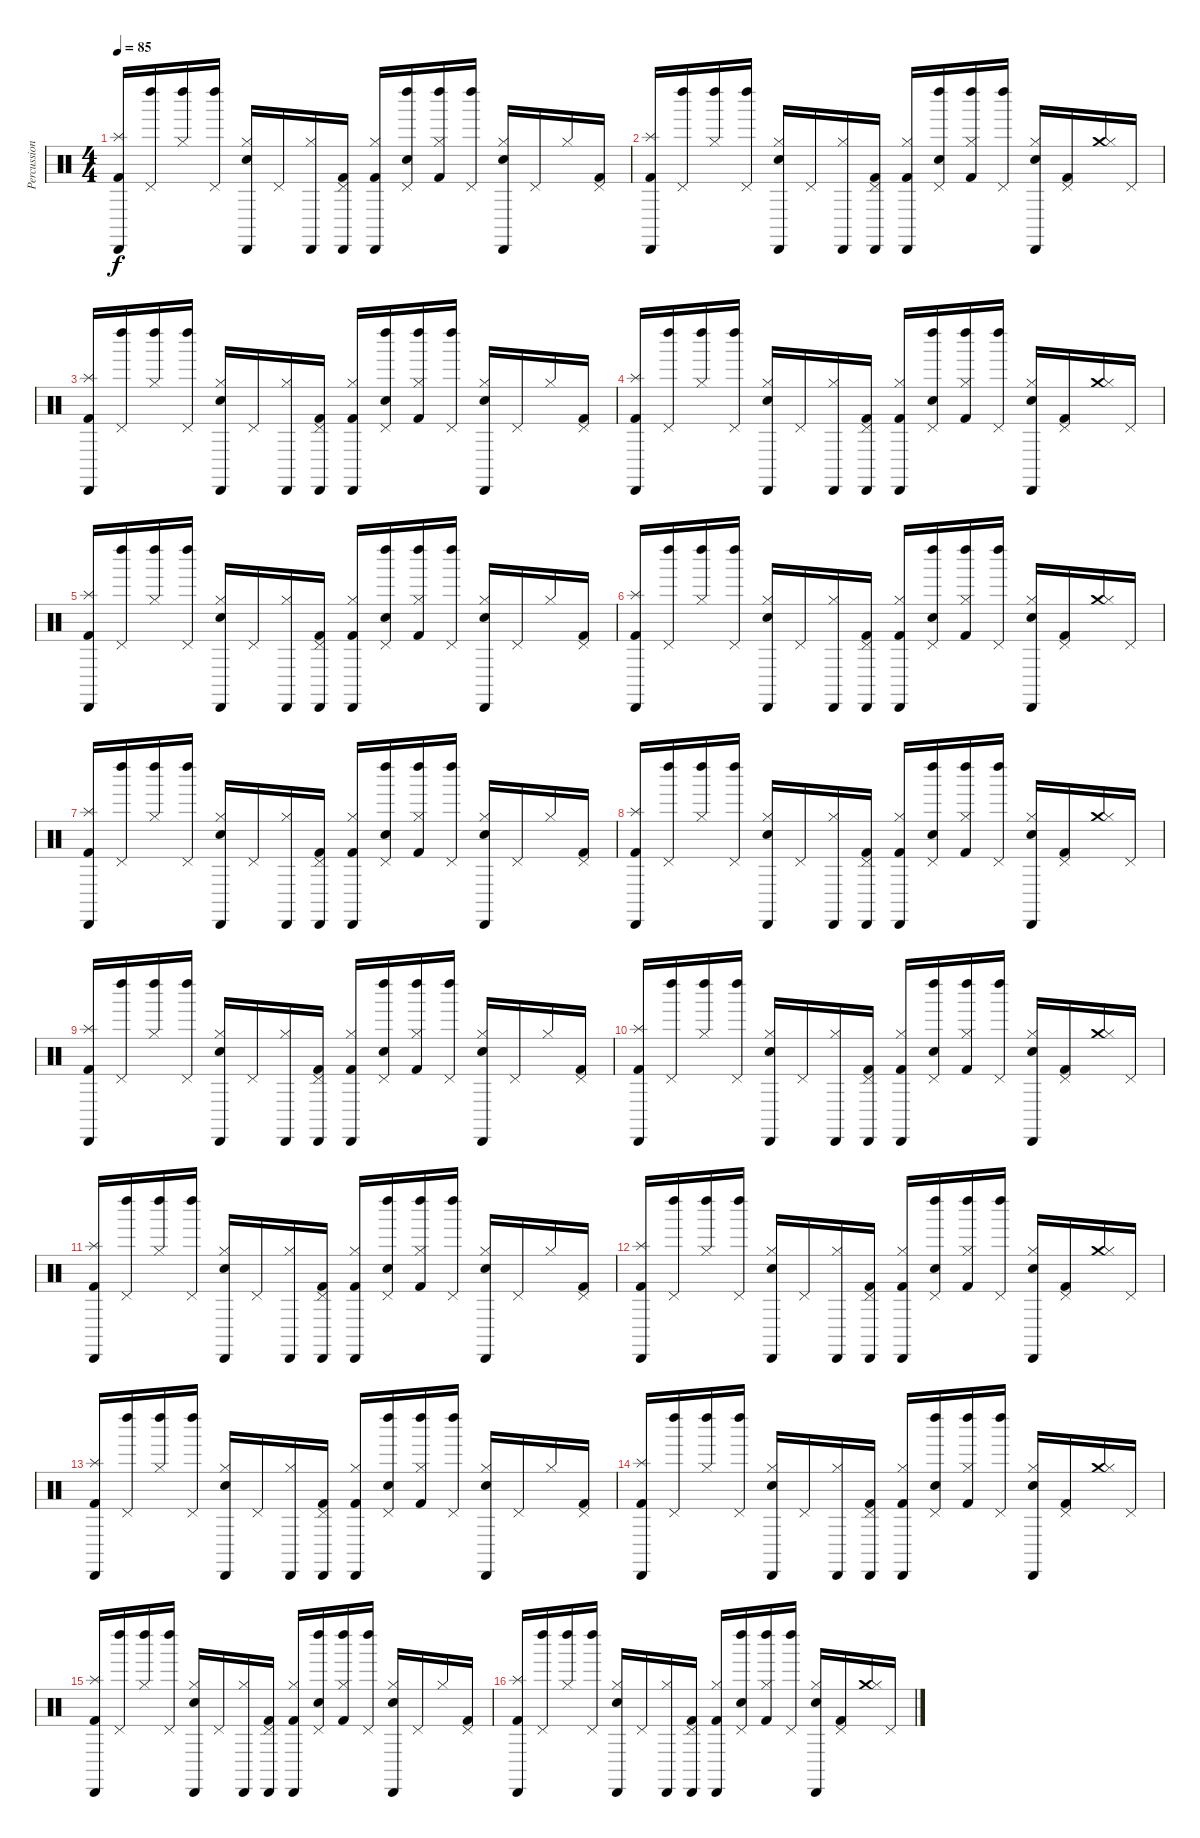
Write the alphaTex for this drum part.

\track ("Percussion" "Percussion") {instrument percussion}
\staff {score}
\articulation defaults
\ts (4 4)
\tempo 85
\clef neutral
\ks c
("Cabasa (hit)" "Splash (hit)" "Kick (hit) 2").16{dy f} ("Left Maraca (hit)" "Pedal Hi-Hat (hit)").16 ("Left Maraca (hit)" "Hi-Hat (closed)").16 ("Left Maraca (hit)" "Pedal Hi-Hat (hit)").16 ("Cabasa (hit)" "Hi-Hat (closed)" "Snare (hit) 2").16 "Pedal Hi-Hat (hit)".16 ("Cabasa (hit)" "Hi-Hat (closed)").16 ("Cabasa (hit)" "Pedal Hi-Hat (hit)" "Kick (hit) 2").16 ("Cabasa (hit)" "Hi-Hat (closed)" "Kick (hit) 2").16 ("Left Maraca (hit)" "Pedal Hi-Hat (hit)" "Snare (hit) 2").16 ("Left Maraca (hit)" "Hi-Hat (closed)" "Kick (hit) 2").16 ("Left Maraca (hit)" "Pedal Hi-Hat (hit)").16 ("Cabasa (hit)" "Hi-Hat (closed)" "Snare (hit) 2").16 "Pedal Hi-Hat (hit)".16 "Hi-Hat (closed)".16 ("Pedal Hi-Hat (hit)" "Kick (hit) 2").16 |
("Cabasa (hit)" "Splash (hit)" "Kick (hit) 2").16 ("Left Maraca (hit)" "Pedal Hi-Hat (hit)").16 ("Left Maraca (hit)" "Hi-Hat (closed)").16 ("Left Maraca (hit)" "Pedal Hi-Hat (hit)").16 ("Cabasa (hit)" "Hi-Hat (closed)" "Snare (hit) 2").16 "Pedal Hi-Hat (hit)".16 ("Cabasa (hit)" "Hi-Hat (closed)").16 ("Cabasa (hit)" "Pedal Hi-Hat (hit)" "Kick (hit) 2").16 ("Cabasa (hit)" "Hi-Hat (closed)" "Kick (hit) 2").16 ("Left Maraca (hit)" "Pedal Hi-Hat (hit)" "Snare (hit) 2").16 ("Left Maraca (hit)" "Hi-Hat (closed)" "Kick (hit) 2").16 ("Left Maraca (hit)" "Pedal Hi-Hat (hit)").16 ("Cabasa (hit)" "Hi-Hat (closed)" "Snare (hit) 2").16 ("Pedal Hi-Hat (hit)" "Kick (hit) 2").16 ("Crash medium (hit)" "Hi-Hat (closed)").16 "Pedal Hi-Hat (hit)".16 |
("Cabasa (hit)" "Splash (hit)" "Kick (hit) 2").16 ("Left Maraca (hit)" "Pedal Hi-Hat (hit)").16 ("Left Maraca (hit)" "Hi-Hat (closed)").16 ("Left Maraca (hit)" "Pedal Hi-Hat (hit)").16 ("Cabasa (hit)" "Hi-Hat (closed)" "Snare (hit) 2").16 "Pedal Hi-Hat (hit)".16 ("Cabasa (hit)" "Hi-Hat (closed)").16 ("Cabasa (hit)" "Pedal Hi-Hat (hit)" "Kick (hit) 2").16 ("Cabasa (hit)" "Hi-Hat (closed)" "Kick (hit) 2").16 ("Left Maraca (hit)" "Pedal Hi-Hat (hit)" "Snare (hit) 2").16 ("Left Maraca (hit)" "Hi-Hat (closed)" "Kick (hit) 2").16 ("Left Maraca (hit)" "Pedal Hi-Hat (hit)").16 ("Cabasa (hit)" "Hi-Hat (closed)" "Snare (hit) 2").16 "Pedal Hi-Hat (hit)".16 "Hi-Hat (closed)".16 ("Pedal Hi-Hat (hit)" "Kick (hit) 2").16 |
("Cabasa (hit)" "Splash (hit)" "Kick (hit) 2").16 ("Left Maraca (hit)" "Pedal Hi-Hat (hit)").16 ("Left Maraca (hit)" "Hi-Hat (closed)").16 ("Left Maraca (hit)" "Pedal Hi-Hat (hit)").16 ("Cabasa (hit)" "Hi-Hat (closed)" "Snare (hit) 2").16 "Pedal Hi-Hat (hit)".16 ("Cabasa (hit)" "Hi-Hat (closed)").16 ("Cabasa (hit)" "Pedal Hi-Hat (hit)" "Kick (hit) 2").16 ("Cabasa (hit)" "Hi-Hat (closed)" "Kick (hit) 2").16 ("Left Maraca (hit)" "Pedal Hi-Hat (hit)" "Snare (hit) 2").16 ("Left Maraca (hit)" "Hi-Hat (closed)" "Kick (hit) 2").16 ("Left Maraca (hit)" "Pedal Hi-Hat (hit)").16 ("Cabasa (hit)" "Hi-Hat (closed)" "Snare (hit) 2").16 ("Pedal Hi-Hat (hit)" "Kick (hit) 2").16 ("Crash medium (hit)" "Hi-Hat (closed)").16 "Pedal Hi-Hat (hit)".16 |
("Cabasa (hit)" "Splash (hit)" "Kick (hit) 2").16 ("Left Maraca (hit)" "Pedal Hi-Hat (hit)").16 ("Left Maraca (hit)" "Hi-Hat (closed)").16 ("Left Maraca (hit)" "Pedal Hi-Hat (hit)").16 ("Cabasa (hit)" "Hi-Hat (closed)" "Snare (hit) 2").16 "Pedal Hi-Hat (hit)".16 ("Cabasa (hit)" "Hi-Hat (closed)").16 ("Cabasa (hit)" "Pedal Hi-Hat (hit)" "Kick (hit) 2").16 ("Cabasa (hit)" "Hi-Hat (closed)" "Kick (hit) 2").16 ("Left Maraca (hit)" "Pedal Hi-Hat (hit)" "Snare (hit) 2").16 ("Left Maraca (hit)" "Hi-Hat (closed)" "Kick (hit) 2").16 ("Left Maraca (hit)" "Pedal Hi-Hat (hit)").16 ("Cabasa (hit)" "Hi-Hat (closed)" "Snare (hit) 2").16 "Pedal Hi-Hat (hit)".16 "Hi-Hat (closed)".16 ("Pedal Hi-Hat (hit)" "Kick (hit) 2").16 |
("Cabasa (hit)" "Splash (hit)" "Kick (hit) 2").16 ("Left Maraca (hit)" "Pedal Hi-Hat (hit)").16 ("Left Maraca (hit)" "Hi-Hat (closed)").16 ("Left Maraca (hit)" "Pedal Hi-Hat (hit)").16 ("Cabasa (hit)" "Hi-Hat (closed)" "Snare (hit) 2").16 "Pedal Hi-Hat (hit)".16 ("Cabasa (hit)" "Hi-Hat (closed)").16 ("Cabasa (hit)" "Pedal Hi-Hat (hit)" "Kick (hit) 2").16 ("Cabasa (hit)" "Hi-Hat (closed)" "Kick (hit) 2").16 ("Left Maraca (hit)" "Pedal Hi-Hat (hit)" "Snare (hit) 2").16 ("Left Maraca (hit)" "Hi-Hat (closed)" "Kick (hit) 2").16 ("Left Maraca (hit)" "Pedal Hi-Hat (hit)").16 ("Cabasa (hit)" "Hi-Hat (closed)" "Snare (hit) 2").16 ("Pedal Hi-Hat (hit)" "Kick (hit) 2").16 ("Crash medium (hit)" "Hi-Hat (closed)").16 "Pedal Hi-Hat (hit)".16 |
("Cabasa (hit)" "Splash (hit)" "Kick (hit) 2").16 ("Left Maraca (hit)" "Pedal Hi-Hat (hit)").16 ("Left Maraca (hit)" "Hi-Hat (closed)").16 ("Left Maraca (hit)" "Pedal Hi-Hat (hit)").16 ("Cabasa (hit)" "Hi-Hat (closed)" "Snare (hit) 2").16 "Pedal Hi-Hat (hit)".16 ("Cabasa (hit)" "Hi-Hat (closed)").16 ("Cabasa (hit)" "Pedal Hi-Hat (hit)" "Kick (hit) 2").16 ("Cabasa (hit)" "Hi-Hat (closed)" "Kick (hit) 2").16 ("Left Maraca (hit)" "Pedal Hi-Hat (hit)" "Snare (hit) 2").16 ("Left Maraca (hit)" "Hi-Hat (closed)" "Kick (hit) 2").16 ("Left Maraca (hit)" "Pedal Hi-Hat (hit)").16 ("Cabasa (hit)" "Hi-Hat (closed)" "Snare (hit) 2").16 "Pedal Hi-Hat (hit)".16 "Hi-Hat (closed)".16 ("Pedal Hi-Hat (hit)" "Kick (hit) 2").16 |
("Cabasa (hit)" "Splash (hit)" "Kick (hit) 2").16 ("Left Maraca (hit)" "Pedal Hi-Hat (hit)").16 ("Left Maraca (hit)" "Hi-Hat (closed)").16 ("Left Maraca (hit)" "Pedal Hi-Hat (hit)").16 ("Cabasa (hit)" "Hi-Hat (closed)" "Snare (hit) 2").16 "Pedal Hi-Hat (hit)".16 ("Cabasa (hit)" "Hi-Hat (closed)").16 ("Cabasa (hit)" "Pedal Hi-Hat (hit)" "Kick (hit) 2").16 ("Cabasa (hit)" "Hi-Hat (closed)" "Kick (hit) 2").16 ("Left Maraca (hit)" "Pedal Hi-Hat (hit)" "Snare (hit) 2").16 ("Left Maraca (hit)" "Hi-Hat (closed)" "Kick (hit) 2").16 ("Left Maraca (hit)" "Pedal Hi-Hat (hit)").16 ("Cabasa (hit)" "Hi-Hat (closed)" "Snare (hit) 2").16 ("Pedal Hi-Hat (hit)" "Kick (hit) 2").16 ("Crash medium (hit)" "Hi-Hat (closed)").16 "Pedal Hi-Hat (hit)".16 |
("Cabasa (hit)" "Splash (hit)" "Kick (hit) 2").16 ("Left Maraca (hit)" "Pedal Hi-Hat (hit)").16 ("Left Maraca (hit)" "Hi-Hat (closed)").16 ("Left Maraca (hit)" "Pedal Hi-Hat (hit)").16 ("Cabasa (hit)" "Hi-Hat (closed)" "Snare (hit) 2").16 "Pedal Hi-Hat (hit)".16 ("Cabasa (hit)" "Hi-Hat (closed)").16 ("Cabasa (hit)" "Pedal Hi-Hat (hit)" "Kick (hit) 2").16 ("Cabasa (hit)" "Hi-Hat (closed)" "Kick (hit) 2").16 ("Left Maraca (hit)" "Pedal Hi-Hat (hit)" "Snare (hit) 2").16 ("Left Maraca (hit)" "Hi-Hat (closed)" "Kick (hit) 2").16 ("Left Maraca (hit)" "Pedal Hi-Hat (hit)").16 ("Cabasa (hit)" "Hi-Hat (closed)" "Snare (hit) 2").16 "Pedal Hi-Hat (hit)".16 "Hi-Hat (closed)".16 ("Pedal Hi-Hat (hit)" "Kick (hit) 2").16 |
("Cabasa (hit)" "Splash (hit)" "Kick (hit) 2").16 ("Left Maraca (hit)" "Pedal Hi-Hat (hit)").16 ("Left Maraca (hit)" "Hi-Hat (closed)").16 ("Left Maraca (hit)" "Pedal Hi-Hat (hit)").16 ("Cabasa (hit)" "Hi-Hat (closed)" "Snare (hit) 2").16 "Pedal Hi-Hat (hit)".16 ("Cabasa (hit)" "Hi-Hat (closed)").16 ("Cabasa (hit)" "Pedal Hi-Hat (hit)" "Kick (hit) 2").16 ("Cabasa (hit)" "Hi-Hat (closed)" "Kick (hit) 2").16 ("Left Maraca (hit)" "Pedal Hi-Hat (hit)" "Snare (hit) 2").16 ("Left Maraca (hit)" "Hi-Hat (closed)" "Kick (hit) 2").16 ("Left Maraca (hit)" "Pedal Hi-Hat (hit)").16 ("Cabasa (hit)" "Hi-Hat (closed)" "Snare (hit) 2").16 ("Pedal Hi-Hat (hit)" "Kick (hit) 2").16 ("Crash medium (hit)" "Hi-Hat (closed)").16 "Pedal Hi-Hat (hit)".16 |
("Cabasa (hit)" "Splash (hit)" "Kick (hit) 2").16 ("Left Maraca (hit)" "Pedal Hi-Hat (hit)").16 ("Left Maraca (hit)" "Hi-Hat (closed)").16 ("Left Maraca (hit)" "Pedal Hi-Hat (hit)").16 ("Cabasa (hit)" "Hi-Hat (closed)" "Snare (hit) 2").16 "Pedal Hi-Hat (hit)".16 ("Cabasa (hit)" "Hi-Hat (closed)").16 ("Cabasa (hit)" "Pedal Hi-Hat (hit)" "Kick (hit) 2").16 ("Cabasa (hit)" "Hi-Hat (closed)" "Kick (hit) 2").16 ("Left Maraca (hit)" "Pedal Hi-Hat (hit)" "Snare (hit) 2").16 ("Left Maraca (hit)" "Hi-Hat (closed)" "Kick (hit) 2").16 ("Left Maraca (hit)" "Pedal Hi-Hat (hit)").16 ("Cabasa (hit)" "Hi-Hat (closed)" "Snare (hit) 2").16 "Pedal Hi-Hat (hit)".16 "Hi-Hat (closed)".16 ("Pedal Hi-Hat (hit)" "Kick (hit) 2").16 |
("Cabasa (hit)" "Splash (hit)" "Kick (hit) 2").16 ("Left Maraca (hit)" "Pedal Hi-Hat (hit)").16 ("Left Maraca (hit)" "Hi-Hat (closed)").16 ("Left Maraca (hit)" "Pedal Hi-Hat (hit)").16 ("Cabasa (hit)" "Hi-Hat (closed)" "Snare (hit) 2").16 "Pedal Hi-Hat (hit)".16 ("Cabasa (hit)" "Hi-Hat (closed)").16 ("Cabasa (hit)" "Pedal Hi-Hat (hit)" "Kick (hit) 2").16 ("Cabasa (hit)" "Hi-Hat (closed)" "Kick (hit) 2").16 ("Left Maraca (hit)" "Pedal Hi-Hat (hit)" "Snare (hit) 2").16 ("Left Maraca (hit)" "Hi-Hat (closed)" "Kick (hit) 2").16 ("Left Maraca (hit)" "Pedal Hi-Hat (hit)").16 ("Cabasa (hit)" "Hi-Hat (closed)" "Snare (hit) 2").16 ("Pedal Hi-Hat (hit)" "Kick (hit) 2").16 ("Crash medium (hit)" "Hi-Hat (closed)").16 "Pedal Hi-Hat (hit)".16 |
("Cabasa (hit)" "Splash (hit)" "Kick (hit) 2").16 ("Left Maraca (hit)" "Pedal Hi-Hat (hit)").16 ("Left Maraca (hit)" "Hi-Hat (closed)").16 ("Left Maraca (hit)" "Pedal Hi-Hat (hit)").16 ("Cabasa (hit)" "Hi-Hat (closed)" "Snare (hit) 2").16 "Pedal Hi-Hat (hit)".16 ("Cabasa (hit)" "Hi-Hat (closed)").16 ("Cabasa (hit)" "Pedal Hi-Hat (hit)" "Kick (hit) 2").16 ("Cabasa (hit)" "Hi-Hat (closed)" "Kick (hit) 2").16 ("Left Maraca (hit)" "Pedal Hi-Hat (hit)" "Snare (hit) 2").16 ("Left Maraca (hit)" "Hi-Hat (closed)" "Kick (hit) 2").16 ("Left Maraca (hit)" "Pedal Hi-Hat (hit)").16 ("Cabasa (hit)" "Hi-Hat (closed)" "Snare (hit) 2").16 "Pedal Hi-Hat (hit)".16 "Hi-Hat (closed)".16 ("Pedal Hi-Hat (hit)" "Kick (hit) 2").16 |
("Cabasa (hit)" "Splash (hit)" "Kick (hit) 2").16 ("Left Maraca (hit)" "Pedal Hi-Hat (hit)").16 ("Left Maraca (hit)" "Hi-Hat (closed)").16 ("Left Maraca (hit)" "Pedal Hi-Hat (hit)").16 ("Cabasa (hit)" "Hi-Hat (closed)" "Snare (hit) 2").16 "Pedal Hi-Hat (hit)".16 ("Cabasa (hit)" "Hi-Hat (closed)").16 ("Cabasa (hit)" "Pedal Hi-Hat (hit)" "Kick (hit) 2").16 ("Cabasa (hit)" "Hi-Hat (closed)" "Kick (hit) 2").16 ("Left Maraca (hit)" "Pedal Hi-Hat (hit)" "Snare (hit) 2").16 ("Left Maraca (hit)" "Hi-Hat (closed)" "Kick (hit) 2").16 ("Left Maraca (hit)" "Pedal Hi-Hat (hit)").16 ("Cabasa (hit)" "Hi-Hat (closed)" "Snare (hit) 2").16 ("Pedal Hi-Hat (hit)" "Kick (hit) 2").16 ("Crash medium (hit)" "Hi-Hat (closed)").16 "Pedal Hi-Hat (hit)".16 |
("Cabasa (hit)" "Splash (hit)" "Kick (hit) 2").16 ("Left Maraca (hit)" "Pedal Hi-Hat (hit)").16 ("Left Maraca (hit)" "Hi-Hat (closed)").16 ("Left Maraca (hit)" "Pedal Hi-Hat (hit)").16 ("Cabasa (hit)" "Hi-Hat (closed)" "Snare (hit) 2").16 "Pedal Hi-Hat (hit)".16 ("Cabasa (hit)" "Hi-Hat (closed)").16 ("Cabasa (hit)" "Pedal Hi-Hat (hit)" "Kick (hit) 2").16 ("Cabasa (hit)" "Hi-Hat (closed)" "Kick (hit) 2").16 ("Left Maraca (hit)" "Pedal Hi-Hat (hit)" "Snare (hit) 2").16 ("Left Maraca (hit)" "Hi-Hat (closed)" "Kick (hit) 2").16 ("Left Maraca (hit)" "Pedal Hi-Hat (hit)").16 ("Cabasa (hit)" "Hi-Hat (closed)" "Snare (hit) 2").16 "Pedal Hi-Hat (hit)".16 "Hi-Hat (closed)".16 ("Pedal Hi-Hat (hit)" "Kick (hit) 2").16 |
("Cabasa (hit)" "Splash (hit)" "Kick (hit) 2").16 ("Left Maraca (hit)" "Pedal Hi-Hat (hit)").16 ("Left Maraca (hit)" "Hi-Hat (closed)").16 ("Left Maraca (hit)" "Pedal Hi-Hat (hit)").16 ("Cabasa (hit)" "Hi-Hat (closed)" "Snare (hit) 2").16 "Pedal Hi-Hat (hit)".16 ("Cabasa (hit)" "Hi-Hat (closed)").16 ("Cabasa (hit)" "Pedal Hi-Hat (hit)" "Kick (hit) 2").16 ("Cabasa (hit)" "Hi-Hat (closed)" "Kick (hit) 2").16 ("Left Maraca (hit)" "Pedal Hi-Hat (hit)" "Snare (hit) 2").16 ("Left Maraca (hit)" "Hi-Hat (closed)" "Kick (hit) 2").16 ("Left Maraca (hit)" "Pedal Hi-Hat (hit)").16 ("Cabasa (hit)" "Hi-Hat (closed)" "Snare (hit) 2").16 ("Pedal Hi-Hat (hit)" "Kick (hit) 2").16 ("Crash medium (hit)" "Hi-Hat (closed)").16 "Pedal Hi-Hat (hit)".16
